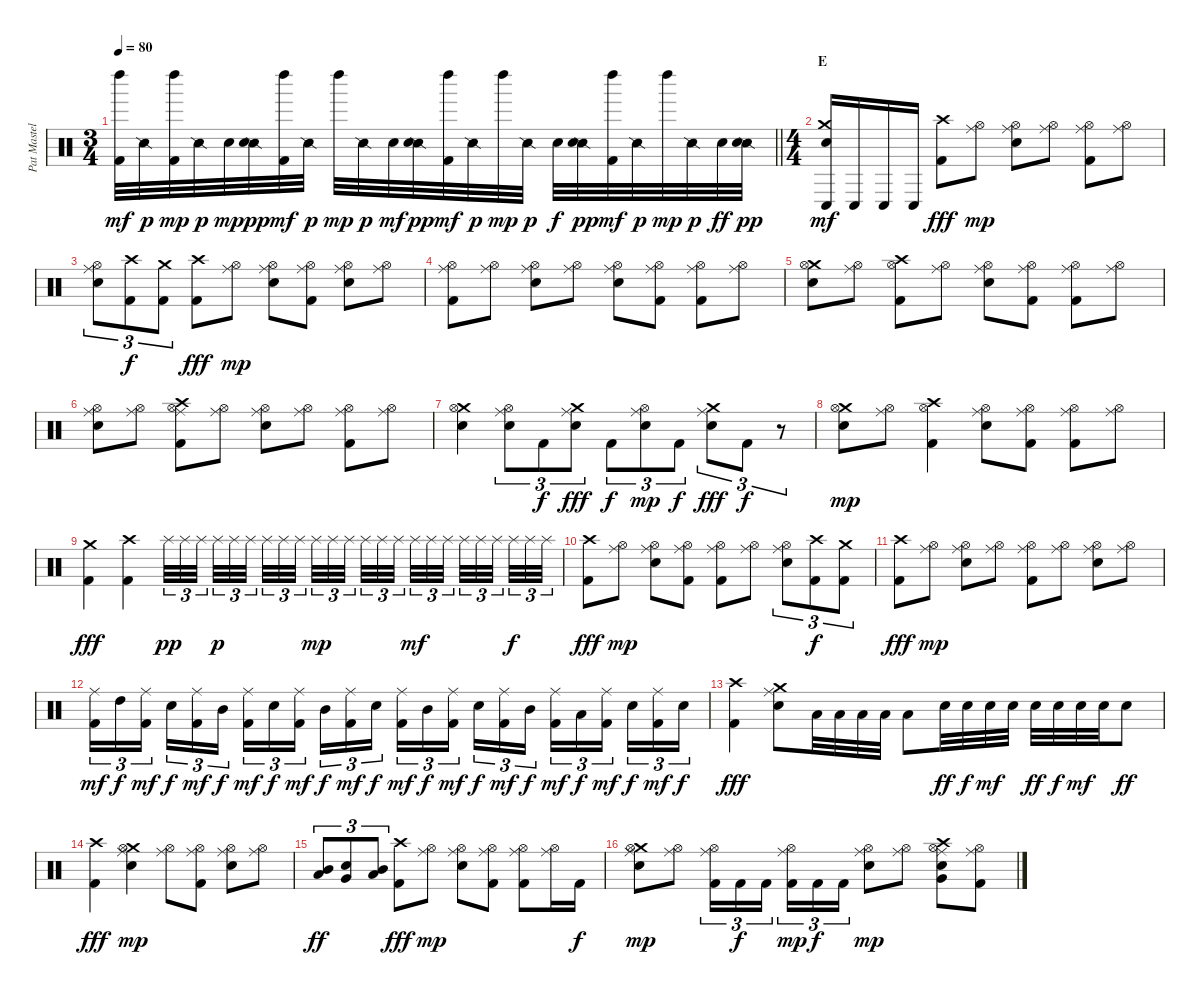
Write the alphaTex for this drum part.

\track ("Pat Mastelotto (Traps / Buttons)" "Pat Mastel") {instrument percussion}
\staff {score}
\articulation defaults
\ts (3 4)
\tempo 80
\clef neutral
\barLineRight lightlight
\ks c
("Left Maraca (hit)" "Kick (hit) 2").32{dy mf volume 3} "Snare (side stick) 2".32{dy p} ("Left Maraca (hit)" "Kick (hit) 2").32{dy mp} "Snare (side stick) 2".32{dy p} "Electric Snare (hit)".32{dy mp} ("Snare (side stick) 2" "Electric Snare (hit)").32{dy pp} ("Left Maraca (hit)" "Kick (hit) 2").32{dy mf} "Snare (side stick) 2".32{dy p} "Left Maraca (hit)".32{dy mp} "Snare (side stick) 2".32{dy p} "Electric Snare (hit)".32{dy mf} ("Snare (side stick) 2" "Electric Snare (hit)").32{dy pp} ("Left Maraca (hit)" "Kick (hit) 2").32{dy mf} "Snare (side stick) 2".32{dy p} "Left Maraca (hit)".32{dy mp} "Snare (side stick) 2".32{dy p} "Electric Snare (hit)".32{dy f} ("Snare (side stick) 2" "Electric Snare (hit)").32{dy pp} ("Left Maraca (hit)" "Kick (hit) 2").32{dy mf} "Snare (side stick) 2".32{dy p} "Left Maraca (hit)".32{dy mp} "Snare (side stick) 2".32{dy p} "Electric Snare (hit)".32{dy ff} ("Snare (side stick) 2" "Electric Snare (hit)").32{dy pp} |
\ts (4 4)
\section ("" "E")
("Crash medium (hit)" "Electric Snare (hit)" "Conga low (hit)").16{dy mf volume 12} "Conga low (hit)".16 "Conga low (hit)".16 "Conga low (hit)".16 ("Crash high (hit)" "Kick (hit) 2").8{dy fff} ("Ride (middle)" "Hi-Hat (open)").8{dy mp} ("Ride (middle)" "Hi-Hat (open)" "Electric Snare (hit)").8 ("Ride (middle)" "Hi-Hat (open)").8 ("Ride (middle)" "Hi-Hat (open)" "Kick (hit) 2").8 ("Ride (middle)" "Hi-Hat (open)").8 |
("Ride (middle)" "Hi-Hat (open)" "Electric Snare (hit)").8{tu (3 2)} ("Crash high (hit)" "Kick (hit) 2").8{tu (3 2) dy f} ("Crash medium (hit)" "Kick (hit) 2").8{tu (3 2)} ("Crash high (hit)" "Kick (hit) 2").8{dy fff} ("Ride (middle)" "Hi-Hat (open)").8{dy mp} ("Ride (middle)" "Hi-Hat (open)" "Electric Snare (hit)").8 ("Ride (middle)" "Hi-Hat (open)" "Kick (hit) 2").8 ("Ride (middle)" "Hi-Hat (open)" "Electric Snare (hit)").8 ("Ride (middle)" "Hi-Hat (open)").8 |
("Ride (middle)" "Hi-Hat (open)" "Kick (hit) 2").8 ("Ride (middle)" "Hi-Hat (open)").8 ("Ride (middle)" "Hi-Hat (open)" "Electric Snare (hit)").8 ("Ride (middle)" "Hi-Hat (open)").8 ("Ride (middle)" "Hi-Hat (open)" "Electric Snare (hit)").8 ("Ride (middle)" "Hi-Hat (open)" "Kick (hit) 2").8 ("Ride (middle)" "Hi-Hat (open)" "Kick (hit) 2").8 ("Ride (middle)" "Hi-Hat (open)").8 |
("Crash medium (hit)" "Hi-Hat (open)" "Electric Snare (hit)").8 ("Ride (middle)" "Hi-Hat (open)").8 ("Crash high (hit)" "Hi-Hat (open)" "Kick (hit) 2").8 ("Ride (middle)" "Hi-Hat (open)").8 ("Ride (middle)" "Hi-Hat (open)" "Electric Snare (hit)").8 ("Ride (middle)" "Hi-Hat (open)" "Kick (hit) 2").8 ("Ride (middle)" "Hi-Hat (open)" "Kick (hit) 2").8 ("Ride (middle)" "Hi-Hat (open)").8 |
("Ride (middle)" "Hi-Hat (open)" "Electric Snare (hit)").8 ("Ride (middle)" "Hi-Hat (open)").8 ("Crash high (hit)" "Ride (middle)" "Hi-Hat (open)" "Kick (hit) 2").8 ("Ride (middle)" "Hi-Hat (open)").8 ("Ride (middle)" "Hi-Hat (open)" "Electric Snare (hit)").8 ("Ride (middle)" "Hi-Hat (open)").8 ("Ride (middle)" "Hi-Hat (open)" "Kick (hit) 2").8 ("Ride (middle)" "Hi-Hat (open)").8 |
("Crash medium (hit)" "Hi-Hat (open)" "Electric Snare (hit)").4 ("Ride (middle)" "Hi-Hat (open)" "Electric Snare (hit)").8{tu (3 2)} "Kick (hit) 2".8{tu (3 2) dy f} ("Crash medium (hit)" "Ride (middle)" "Electric Snare (hit)").8{tu (3 2) dy fff} "Kick (hit) 2".8{tu (3 2) dy f} ("Ride (middle)" "Hi-Hat (open)" "Electric Snare (hit)").8{tu (3 2) dy mp} "Kick (hit) 2".8{tu (3 2) dy f} ("Crash medium (hit)" "Ride (middle)" "Electric Snare (hit)").8{tu (3 2) dy fff} "Kick (hit) 2".8{tu (3 2) dy f} r.8{tu (3 2)} |
("Crash medium (hit)" "Hi-Hat (open)" "Electric Snare (hit)").8{dy mp} ("Ride (middle)" "Hi-Hat (open)").8 ("Crash high (hit)" "Hi-Hat (open)" "Kick (hit) 2").4 ("Ride (middle)" "Hi-Hat (open)" "Electric Snare (hit)").8 ("Ride (middle)" "Hi-Hat (open)" "Kick (hit) 2").8 ("Ride (middle)" "Hi-Hat (open)" "Kick (hit) 2").8 ("Ride (middle)" "Hi-Hat (open)").8 |
("Crash medium (hit)" "Kick (hit) 2").4{dy fff} ("Crash high (hit)" "Kick (hit) 2").4 "Splash (hit)".32{tu (3 2) dy pp} "Splash (hit)".32{tu (3 2)} "Splash (hit)".32{tu (3 2) beam splitsecondary} "Splash (hit)".32{tu (3 2) dy p} "Splash (hit)".32{tu (3 2)} "Splash (hit)".32{tu (3 2) beam splitsecondary} "Splash (hit)".32{tu (3 2)} "Splash (hit)".32{tu (3 2)} "Splash (hit)".32{tu (3 2) beam splitsecondary} "Splash (hit)".32{tu (3 2) dy mp} "Splash (hit)".32{tu (3 2)} "Splash (hit)".32{tu (3 2)} "Splash (hit)".32{tu (3 2)} "Splash (hit)".32{tu (3 2)} "Splash (hit)".32{tu (3 2) beam splitsecondary} "Splash (hit)".32{tu (3 2) dy mf} "Splash (hit)".32{tu (3 2)} "Splash (hit)".32{tu (3 2) beam splitsecondary} "Splash (hit)".32{tu (3 2)} "Splash (hit)".32{tu (3 2)} "Splash (hit)".32{tu (3 2) beam splitsecondary} "Splash (hit)".32{tu (3 2) dy f} "Splash (hit)".32{tu (3 2)} "Splash (hit)".32{tu (3 2)} |
("Crash high (hit)" "Kick (hit) 2").8{dy fff} ("Ride (middle)" "Hi-Hat (open)").8{dy mp} ("Ride (middle)" "Hi-Hat (open)" "Electric Snare (hit)").8 ("Ride (middle)" "Hi-Hat (open)" "Kick (hit) 2").8 ("Ride (middle)" "Hi-Hat (open)" "Kick (hit) 2").8 ("Ride (middle)" "Hi-Hat (open)").8 ("Ride (middle)" "Hi-Hat (open)" "Electric Snare (hit)").8{tu (3 2)} ("Crash high (hit)" "Kick (hit) 2").8{tu (3 2) dy f} ("Crash medium (hit)" "Kick (hit) 2").8{tu (3 2)} |
("Crash high (hit)" "Kick (hit) 2").8{dy fff} ("Ride (middle)" "Hi-Hat (open)").8{dy mp} ("Ride (middle)" "Hi-Hat (open)" "Electric Snare (hit)").8 ("Ride (middle)" "Hi-Hat (open)").8 ("Ride (middle)" "Hi-Hat (open)" "Kick (hit) 2").8 ("Ride (middle)" "Hi-Hat (open)").8 ("Ride (middle)" "Hi-Hat (open)" "Electric Snare (hit)").8 ("Ride (middle)" "Hi-Hat (open)").8 |
("Ride (middle)" "Kick (hit) 2").16{tu (3 2) dy mf} "High Tom (hit)".16{tu (3 2) dy f} ("Ride (middle)" "Kick (hit) 2").16{tu (3 2) dy mf beam splitsecondary} "Electric Snare (hit)".16{tu (3 2) dy f} ("Ride (middle)" "Kick (hit) 2").16{tu (3 2) dy mf} "Mid Tom (hit)".16{tu (3 2) dy f} ("Ride (middle)" "Kick (hit) 2").16{tu (3 2) dy mf} "Electric Snare (hit)".16{tu (3 2) dy f} ("Ride (middle)" "Kick (hit) 2").16{tu (3 2) dy mf beam splitsecondary} "Mid Tom (hit)".16{tu (3 2) dy f} ("Ride (middle)" "Kick (hit) 2").16{tu (3 2) dy mf} "Electric Snare (hit)".16{tu (3 2) dy f} ("Ride (middle)" "Kick (hit) 2").16{tu (3 2) dy mf} "Mid Tom (hit)".16{tu (3 2) dy f} ("Ride (middle)" "Kick (hit) 2").16{tu (3 2) dy mf beam splitsecondary} "Electric Snare (hit)".16{tu (3 2) dy f} ("Ride (middle)" "Kick (hit) 2").16{tu (3 2) dy mf} "Mid Tom (hit)".16{tu (3 2) dy f} ("Ride (middle)" "Kick (hit) 2").16{tu (3 2) dy mf} "Low Tom (hit)".16{tu (3 2) dy f} ("Ride (middle)" "Kick (hit) 2").16{tu (3 2) dy mf beam splitsecondary} "Electric Snare (hit)".16{tu (3 2) dy f} ("Ride (middle)" "Kick (hit) 2").16{tu (3 2) dy mf} "Electric Snare (hit)".16{tu (3 2) dy f} |
("Crash high (hit)" "Kick (hit) 2").4{dy fff} ("Crash medium (hit)" "Ride (middle)" "Electric Snare (hit)").8 "Low Floor Tom (hit)".32 "Low Floor Tom (hit)".32 "Low Floor Tom (hit)".32 "Low Floor Tom (hit)".32 "Low Floor Tom (hit)".8 "Electric Snare (hit)".32{dy ff} "Electric Snare (hit)".32{dy f} "Electric Snare (hit)".32{dy mf} "Electric Snare (hit)".32 "Electric Snare (hit)".32{dy ff} "Electric Snare (hit)".32{dy f} "Electric Snare (hit)".32{dy mf} "Electric Snare (hit)".32 "Electric Snare (hit)".8{dy ff} |
("Crash high (hit)" "Kick (hit) 2").4{dy fff} ("Crash medium (hit)" "Ride (middle)" "Hi-Hat (open)" "Electric Snare (hit)").4{dy mp} ("Ride (middle)" "Hi-Hat (open)").8 ("Ride (middle)" "Hi-Hat (open)" "Kick (hit) 2").8 ("Ride (middle)" "Hi-Hat (open)" "Electric Snare (hit)").8 ("Ride (middle)" "Hi-Hat (open)").8 |
("Mid Tom (hit)" "Low Floor Tom (hit)").8{tu (3 2) dy ff} ("Electric Snare (hit)" "Very Low Tom (hit)").8{tu (3 2)} ("Mid Tom (hit)" "Low Floor Tom (hit)").8{tu (3 2)} ("Crash high (hit)" "Kick (hit) 2").8{dy fff} ("Ride (middle)" "Hi-Hat (open)").8{dy mp} ("Ride (middle)" "Hi-Hat (open)" "Electric Snare (hit)").8 ("Ride (middle)" "Hi-Hat (open)" "Kick (hit) 2").8 ("Ride (middle)" "Hi-Hat (open)" "Kick (hit) 2").8 ("Ride (middle)" "Hi-Hat (open)").16 "Kick (hit) 2".16{dy f} |
("Crash medium (hit)" "Ride (middle)" "Hi-Hat (open)" "Electric Snare (hit)").8{dy mp} ("Ride (middle)" "Hi-Hat (open)").8 ("Ride (middle)" "Hi-Hat (open)" "Kick (hit) 2").16{tu (3 2)} "Kick (hit) 2".16{tu (3 2) dy f} "Kick (hit) 2".16{tu (3 2) beam splitsecondary} ("Ride (middle)" "Hi-Hat (open)" "Kick (hit) 2").16{tu (3 2) dy mp} "Kick (hit) 2".16{tu (3 2) dy f} "Kick (hit) 2".16{tu (3 2)} ("Ride (middle)" "Hi-Hat (open)" "Electric Snare (hit)").8{dy mp} ("Ride (middle)" "Hi-Hat (open)").8 ("Crash high (hit)" "Ride (middle)" "Hi-Hat (open)" "Electric Snare (hit)" "Very Low Tom (hit)").8 ("Ride (middle)" "Hi-Hat (open)" "Kick (hit) 2").8
